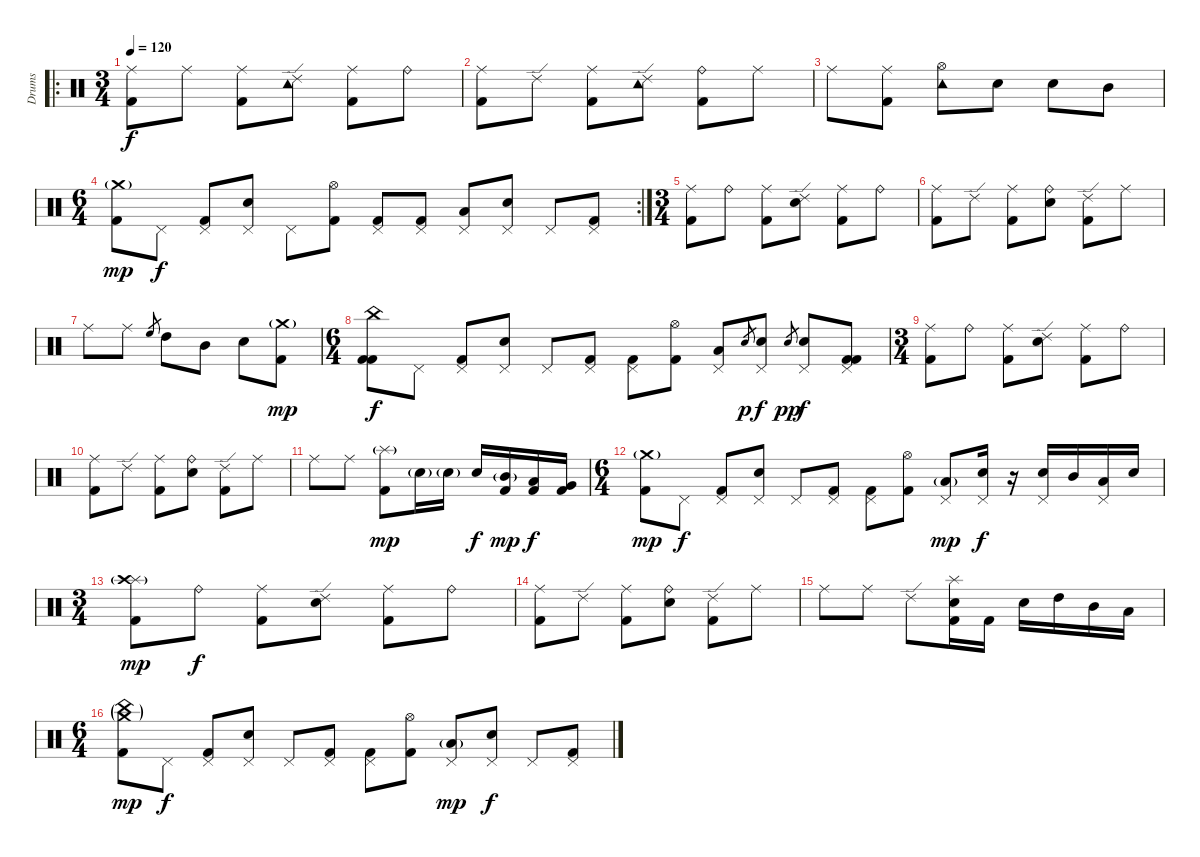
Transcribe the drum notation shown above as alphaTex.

\track ("Drums" "Drums") {instrument percussion}
\staff {score}
\articulation defaults
\ro
\ts (3 4)
\tempo 120
\clef neutral
\ks c
("Ride (middle)" "Kick (hit) 2").8{dy f} "Ride (middle)".8 ("Ride (middle)" "Kick (hit) 2").8 ("Ride (edge) 2" "Tambourine (hit)").8 ("Ride (middle)" "Kick (hit) 2").8 "Ride (bell)".8 |
("Ride (middle)" "Kick (hit) 2").8 "Ride (edge) 2".8 ("Ride (middle)" "Kick (hit) 2").8 ("Ride (edge) 2" "Tambourine (hit)").8 ("Ride (bell)" "Kick (hit) 2").8 "Ride (middle)".8 |
"Ride (middle)".8 ("Ride (middle)" "Kick (hit) 2").8 ("Hi-Hat (open)" "Tambourine (hit)").8 "Electric Snare (hit)".8 "Electric Snare (hit)".8 "Mid Tom (hit)".8 |
\rc 2
\ts (6 4)
("Crash medium (hit)"{g} "Kick (hit) 2").8{dy mp} "Pedal Hi-Hat (hit)".8{dy f} ("Pedal Hi-Hat (hit)" "Kick (hit) 2").8 ("Pedal Hi-Hat (hit)" "Electric Snare (hit)").8 "Pedal Hi-Hat (hit)".8 ("Hi-Hat (open)" "Kick (hit) 2").8 ("Pedal Hi-Hat (hit)" "Kick (hit) 2").8 ("Pedal Hi-Hat (hit)" "Kick (hit) 2").8 ("Pedal Hi-Hat (hit)" "Low Tom (hit)").8 ("Pedal Hi-Hat (hit)" "Electric Snare (hit)").8 "Pedal Hi-Hat (hit)".8 ("Pedal Hi-Hat (hit)" "Kick (hit) 2").8 |
\ts (3 4)
("Ride (middle)" "Kick (hit) 2").8 "Ride (bell)".8 ("Ride (middle)" "Kick (hit) 2").8 ("Ride (edge) 2" "Electric Snare (hit)").8 ("Ride (middle)" "Kick (hit) 2").8 "Ride (bell)".8 |
("Ride (middle)" "Kick (hit) 2").8 "Ride (edge) 2".8 ("Ride (middle)" "Kick (hit) 2").8 ("Ride (bell)" "Electric Snare (hit)").8 ("Ride (edge) 2" "Kick (hit) 2").8 "Ride (middle)".8 |
"Ride (middle)".8 "Ride (middle)".8 "High Floor Tom (hit)".8{gr} "High Tom (hit)".8 "Mid Tom (hit)".8 "Electric Snare (hit)".8 ("Crash medium (hit)"{g} "Kick (hit) 2").8{dy mp} |
\ts (6 4)
("China (hit)" "Kick (hit) 2" "Kick (hit) 2").8{dy f} "Pedal Hi-Hat (hit)".8 ("Pedal Hi-Hat (hit)" "Kick (hit) 2").8 ("Pedal Hi-Hat (hit)" "Electric Snare (hit)").8 "Pedal Hi-Hat (hit)".8 ("Pedal Hi-Hat (hit)" "Kick (hit) 2").8 ("Pedal Hi-Hat (hit)" "Kick (hit) 2").8 ("Hi-Hat (open)" "Kick (hit) 2").8 ("Pedal Hi-Hat (hit)" "Low Tom (hit)").8 "Electric Snare (hit)".8{gr dy p} ("Pedal Hi-Hat (hit)" "Electric Snare (hit)").8{dy f} "Electric Snare (hit)".8{gr dy pp} ("Pedal Hi-Hat (hit)" "Electric Snare (hit)").8{dy f} ("Pedal Hi-Hat (hit)" "Kick (hit) 2" "Kick (hit) 2").8 |
\ts (3 4)
("Ride (middle)" "Kick (hit) 2").8 "Ride (bell)".8 ("Ride (middle)" "Kick (hit) 2").8 ("Ride (edge) 2" "Electric Snare (hit)").8 ("Ride (middle)" "Kick (hit) 2").8 "Ride (bell)".8 |
("Ride (middle)" "Kick (hit) 2").8 "Ride (edge) 2".8 ("Ride (middle)" "Kick (hit) 2").8 ("Ride (bell)" "Electric Snare (hit)").8 ("Ride (edge) 2" "Kick (hit) 2").8 "Ride (middle)".8 |
"Ride (middle)".8 "Ride (middle)".8 ("Splash (hit)"{g} "Kick (hit) 2").8{dy mp} "Electric Snare (hit)"{g}.16 "Electric Snare (hit)"{g}.16 "Electric Snare (hit)".16{dy f} ("Mid Tom (hit)"{g} "Kick (hit) 2").16{dy mp} ("Low Tom (hit)" "Kick (hit) 2").16{dy f} ("Very Low Tom (hit)" "Kick (hit) 2").16 |
\ts (6 4)
("Crash medium (hit)"{g} "Kick (hit) 2").8{dy mp} "Pedal Hi-Hat (hit)".8{dy f} ("Pedal Hi-Hat (hit)" "Kick (hit) 2").8 ("Pedal Hi-Hat (hit)" "Electric Snare (hit)").8 "Pedal Hi-Hat (hit)".8 ("Pedal Hi-Hat (hit)" "Kick (hit) 2").8 ("Pedal Hi-Hat (hit)" "Kick (hit) 2").8 ("Hi-Hat (open)" "Kick (hit) 2").8 ("Pedal Hi-Hat (hit)" "Low Tom (hit)"{g}).8{dy mp} ("Pedal Hi-Hat (hit)" "Electric Snare (hit)").16{dy f} r.16 ("Pedal Hi-Hat (hit)" "Electric Snare (hit)").16 "Mid Tom (hit)".16 ("Pedal Hi-Hat (hit)" "Low Tom (hit)").16 "Electric Snare (hit)".16 |
\ts (3 4)
("Splash (hit)" "Crash high (hit)"{g} "Kick (hit) 2").8{dy mp} "Ride (bell)".8{dy f} ("Ride (middle)" "Kick (hit) 2").8 ("Ride (edge) 2" "Electric Snare (hit)").8 ("Ride (middle)" "Kick (hit) 2").8 "Ride (bell)".8 |
("Ride (middle)" "Kick (hit) 2").8 "Ride (edge) 2".8 ("Ride (middle)" "Kick (hit) 2").8 ("Ride (bell)" "Electric Snare (hit)").8 ("Ride (edge) 2" "Kick (hit) 2").8 "Ride (middle)".8 |
"Ride (middle)".8 "Ride (middle)".8 "Ride (edge) 2".8 ("Splash (hit)" "Electric Snare (hit)" "Kick (hit) 2").16 "Kick (hit) 2".16 "Electric Snare (hit)".16 "High Tom (hit)".16 "Mid Tom (hit)".16 "Low Tom (hit)".16 |
\ts (6 4)
("Crash medium (hit)"{g} "China (hit)"{g} "Kick (hit) 2").8{dy mp} "Pedal Hi-Hat (hit)".8{dy f} ("Pedal Hi-Hat (hit)" "Kick (hit) 2").8 ("Pedal Hi-Hat (hit)" "Electric Snare (hit)").8 "Pedal Hi-Hat (hit)".8 ("Pedal Hi-Hat (hit)" "Kick (hit) 2").8 ("Pedal Hi-Hat (hit)" "Kick (hit) 2").8 ("Hi-Hat (open)" "Kick (hit) 2").8 ("Pedal Hi-Hat (hit)" "Low Tom (hit)"{g}).8{dy mp} ("Pedal Hi-Hat (hit)" "Electric Snare (hit)").8{dy f} "Pedal Hi-Hat (hit)".8 ("Pedal Hi-Hat (hit)" "Kick (hit) 2").8
